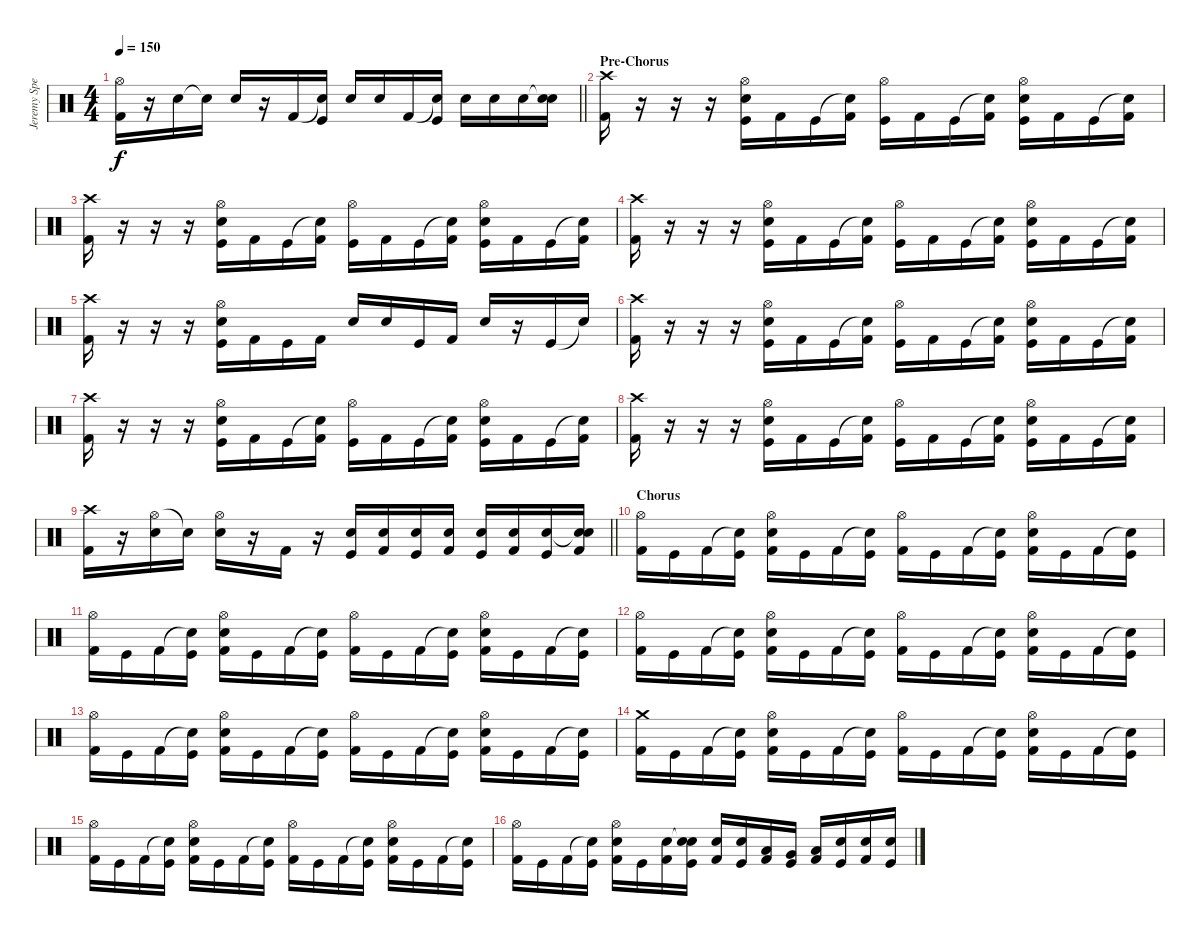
\track ("Jeremy Spencer" "Jeremy Spe") {instrument percussion}
\staff {score}
\articulation defaults
\ts (4 4)
\tempo 150
\clef neutral
\barLineRight lightlight
\ks c
("Hi-Hat (open)" "Kick (hit) 2").16{dy f} r.16 "Snare (hit) 2".16 "Snare (hit)"{t}.16 "Snare (hit) 2".16 r.16 "Kick (hit) 2".16 ("Snare (hit)"{t} "Kick (hit)").16 "Snare (hit) 2".16 "Snare (hit) 2".16 "Kick (hit) 2".16 ("Snare (hit)"{t} "Kick (hit)").16 "Snare (hit) 2".16 "Snare (hit) 2".16 "Snare (hit) 2".16 ("Snare (hit)"{t} "Snare (hit) 2").16 |
\section ("" "Pre-Chorus")
("Crash high (hit)" "Kick (hit) 2").16 r.16 r.16 r.16 ("Hi-Hat (open)" "Snare (hit) 2" "Kick (hit)").16 "Kick (hit) 2".16 "Kick (hit)".16 ("Snare (hit)"{t} "Kick (hit) 2").16 ("Hi-Hat (open)" "Kick (hit)").16 "Kick (hit) 2".16 "Kick (hit)".16 ("Snare (hit)"{t} "Kick (hit) 2").16 ("Hi-Hat (open)" "Snare (hit) 2" "Kick (hit)").16 "Kick (hit) 2".16 "Kick (hit)".16 ("Snare (hit)"{t} "Kick (hit) 2").16 |
("Crash high (hit)" "Kick (hit) 2").16 r.16 r.16 r.16 ("Hi-Hat (open)" "Snare (hit) 2" "Kick (hit)").16 "Kick (hit) 2".16 "Kick (hit)".16 ("Snare (hit)"{t} "Kick (hit) 2").16 ("Hi-Hat (open)" "Kick (hit)").16 "Kick (hit) 2".16 "Kick (hit)".16 ("Snare (hit)"{t} "Kick (hit) 2").16 ("Hi-Hat (open)" "Snare (hit) 2" "Kick (hit)").16 "Kick (hit) 2".16 "Kick (hit)".16 ("Snare (hit)"{t} "Kick (hit) 2").16 |
("Crash high (hit)" "Kick (hit) 2").16 r.16 r.16 r.16 ("Hi-Hat (open)" "Snare (hit) 2" "Kick (hit)").16 "Kick (hit) 2".16 "Kick (hit)".16 ("Snare (hit)"{t} "Kick (hit) 2").16 ("Hi-Hat (open)" "Kick (hit)").16 "Kick (hit) 2".16 "Kick (hit)".16 ("Snare (hit)"{t} "Kick (hit) 2").16 ("Hi-Hat (open)" "Snare (hit) 2" "Kick (hit)").16 "Kick (hit) 2".16 "Kick (hit)".16 ("Snare (hit)"{t} "Kick (hit) 2").16 |
("Crash high (hit)" "Kick (hit) 2").16 r.16 r.16 r.16 ("Hi-Hat (open)" "Snare (hit) 2" "Kick (hit)").16 "Kick (hit) 2".16 "Kick (hit)".16 "Kick (hit) 2".16 "Snare (hit) 2".16 "Snare (hit) 2".16 "Kick (hit)".16 "Kick (hit) 2".16 "Snare (hit) 2".16 r.16 "Kick (hit)".16 "Snare (hit)"{t}.16 |
("Crash high (hit)" "Kick (hit) 2").16 r.16 r.16 r.16 ("Hi-Hat (open)" "Snare (hit) 2" "Kick (hit)").16 "Kick (hit) 2".16 "Kick (hit)".16 ("Snare (hit)"{t} "Kick (hit) 2").16 ("Hi-Hat (open)" "Kick (hit)").16 "Kick (hit) 2".16 "Kick (hit)".16 ("Snare (hit)"{t} "Kick (hit) 2").16 ("Hi-Hat (open)" "Snare (hit) 2" "Kick (hit)").16 "Kick (hit) 2".16 "Kick (hit)".16 ("Snare (hit)"{t} "Kick (hit) 2").16 |
("Crash high (hit)" "Kick (hit) 2").16 r.16 r.16 r.16 ("Hi-Hat (open)" "Snare (hit) 2" "Kick (hit)").16 "Kick (hit) 2".16 "Kick (hit)".16 ("Snare (hit)"{t} "Kick (hit) 2").16 ("Hi-Hat (open)" "Kick (hit)").16 "Kick (hit) 2".16 "Kick (hit)".16 ("Snare (hit)"{t} "Kick (hit) 2").16 ("Hi-Hat (open)" "Snare (hit) 2" "Kick (hit)").16 "Kick (hit) 2".16 "Kick (hit)".16 ("Snare (hit)"{t} "Kick (hit) 2").16 |
("Crash high (hit)" "Kick (hit) 2").16 r.16 r.16 r.16 ("Hi-Hat (open)" "Snare (hit) 2" "Kick (hit)").16 "Kick (hit) 2".16 "Kick (hit)".16 ("Snare (hit)"{t} "Kick (hit) 2").16 ("Hi-Hat (open)" "Kick (hit)").16 "Kick (hit) 2".16 "Kick (hit)".16 ("Snare (hit)"{t} "Kick (hit) 2").16 ("Hi-Hat (open)" "Snare (hit) 2" "Kick (hit)").16 "Kick (hit) 2".16 "Kick (hit)".16 ("Snare (hit)"{t} "Kick (hit) 2").16 |
\barLineRight lightlight
("Crash high (hit)" "Kick (hit) 2").16 r.16 ("Hi-Hat (open)" "Snare (hit) 2").16 "Snare (hit)"{t}.16 ("Hi-Hat (open)" "Snare (hit) 2").16 r.16 "Kick (hit) 2".16 r.16 ("Snare (hit) 2" "Kick (hit)").16 ("Snare (hit) 2" "Kick (hit) 2").16 ("Snare (hit) 2" "Kick (hit)").16 ("Snare (hit) 2" "Kick (hit) 2").16 ("Snare (hit) 2" "Kick (hit)").16 ("Snare (hit) 2" "Kick (hit) 2").16 ("Snare (hit) 2" "Kick (hit)").16 ("Snare (hit)"{t} "Snare (hit) 2" "Kick (hit) 2").16 |
\section ("" "Chorus")
("Hi-Hat (open)" "Kick (hit) 2").16 "Kick (hit)".16 "Kick (hit) 2".16 ("Snare (hit)"{t} "Kick (hit)").16 ("Hi-Hat (open)" "Snare (hit) 2" "Kick (hit) 2").16 "Kick (hit)".16 "Kick (hit) 2".16 ("Snare (hit)"{t} "Kick (hit)").16 ("Hi-Hat (open)" "Kick (hit) 2").16 "Kick (hit)".16 "Kick (hit) 2".16 ("Snare (hit)"{t} "Kick (hit)").16 ("Hi-Hat (open)" "Snare (hit) 2" "Kick (hit) 2").16 "Kick (hit)".16 "Kick (hit) 2".16 ("Snare (hit)"{t} "Kick (hit)").16 |
("Hi-Hat (open)" "Kick (hit) 2").16 "Kick (hit)".16 "Kick (hit) 2".16 ("Snare (hit)"{t} "Kick (hit)").16 ("Hi-Hat (open)" "Snare (hit) 2" "Kick (hit) 2").16 "Kick (hit)".16 "Kick (hit) 2".16 ("Snare (hit)"{t} "Kick (hit)").16 ("Hi-Hat (open)" "Kick (hit) 2").16 "Kick (hit)".16 "Kick (hit) 2".16 ("Snare (hit)"{t} "Kick (hit)").16 ("Hi-Hat (open)" "Snare (hit) 2" "Kick (hit) 2").16 "Kick (hit)".16 "Kick (hit) 2".16 ("Snare (hit)"{t} "Kick (hit)").16 |
("Hi-Hat (open)" "Kick (hit) 2").16 "Kick (hit)".16 "Kick (hit) 2".16 ("Snare (hit)"{t} "Kick (hit)").16 ("Hi-Hat (open)" "Snare (hit) 2" "Kick (hit) 2").16 "Kick (hit)".16 "Kick (hit) 2".16 ("Snare (hit)"{t} "Kick (hit)").16 ("Hi-Hat (open)" "Kick (hit) 2").16 "Kick (hit)".16 "Kick (hit) 2".16 ("Snare (hit)"{t} "Kick (hit)").16 ("Hi-Hat (open)" "Snare (hit) 2" "Kick (hit) 2").16 "Kick (hit)".16 "Kick (hit) 2".16 ("Snare (hit)"{t} "Kick (hit)").16 |
("Hi-Hat (open)" "Kick (hit) 2").16 "Kick (hit)".16 "Kick (hit) 2".16 ("Snare (hit)"{t} "Kick (hit)").16 ("Hi-Hat (open)" "Snare (hit) 2" "Kick (hit) 2").16 "Kick (hit)".16 "Kick (hit) 2".16 ("Snare (hit)"{t} "Kick (hit)").16 ("Hi-Hat (open)" "Kick (hit) 2").16 "Kick (hit)".16 "Kick (hit) 2".16 ("Snare (hit)"{t} "Kick (hit)").16 ("Hi-Hat (open)" "Snare (hit) 2" "Kick (hit) 2").16 "Kick (hit)".16 "Kick (hit) 2".16 ("Snare (hit)"{t} "Kick (hit)").16 |
("Crash medium (hit)" "Kick (hit) 2").16 "Kick (hit)".16 "Kick (hit) 2".16 ("Snare (hit)"{t} "Kick (hit)").16 ("Hi-Hat (open)" "Snare (hit) 2" "Kick (hit) 2").16 "Kick (hit)".16 "Kick (hit) 2".16 ("Snare (hit)"{t} "Kick (hit)").16 ("Hi-Hat (open)" "Kick (hit) 2").16 "Kick (hit)".16 "Kick (hit) 2".16 ("Snare (hit)"{t} "Kick (hit)").16 ("Hi-Hat (open)" "Snare (hit) 2" "Kick (hit) 2").16 "Kick (hit)".16 "Kick (hit) 2".16 ("Snare (hit)"{t} "Kick (hit)").16 |
("Hi-Hat (open)" "Kick (hit) 2").16 "Kick (hit)".16 "Kick (hit) 2".16 ("Snare (hit)"{t} "Kick (hit)").16 ("Hi-Hat (open)" "Snare (hit) 2" "Kick (hit) 2").16 "Kick (hit)".16 "Kick (hit) 2".16 ("Snare (hit)"{t} "Kick (hit)").16 ("Hi-Hat (open)" "Kick (hit) 2").16 "Kick (hit)".16 "Kick (hit) 2".16 ("Snare (hit)"{t} "Kick (hit)").16 ("Hi-Hat (open)" "Snare (hit) 2" "Kick (hit) 2").16 "Kick (hit)".16 "Kick (hit) 2".16 ("Snare (hit)"{t} "Kick (hit)").16 |
("Hi-Hat (open)" "Kick (hit) 2").16 "Kick (hit)".16 "Kick (hit) 2".16 ("Snare (hit)"{t} "Kick (hit)").16 ("Hi-Hat (open)" "Snare (hit) 2" "Kick (hit) 2").16 "Kick (hit)".16 ("Snare (hit) 2" "Kick (hit) 2").16 ("Snare (hit)"{t} "Snare (hit) 2" "Kick (hit)").16 ("Snare (hit) 2" "Kick (hit) 2").16 ("Snare (hit) 2" "Kick (hit)").16 ("Low Tom (hit)" "Kick (hit) 2").16 ("Very Low Tom (hit)" "Kick (hit)").16 ("Low Floor Tom (hit)" "Kick (hit) 2").16 ("Snare (hit) 2" "Kick (hit)").16 ("Snare (hit) 2" "Kick (hit) 2").16 ("Snare (hit) 2" "Kick (hit)").16
